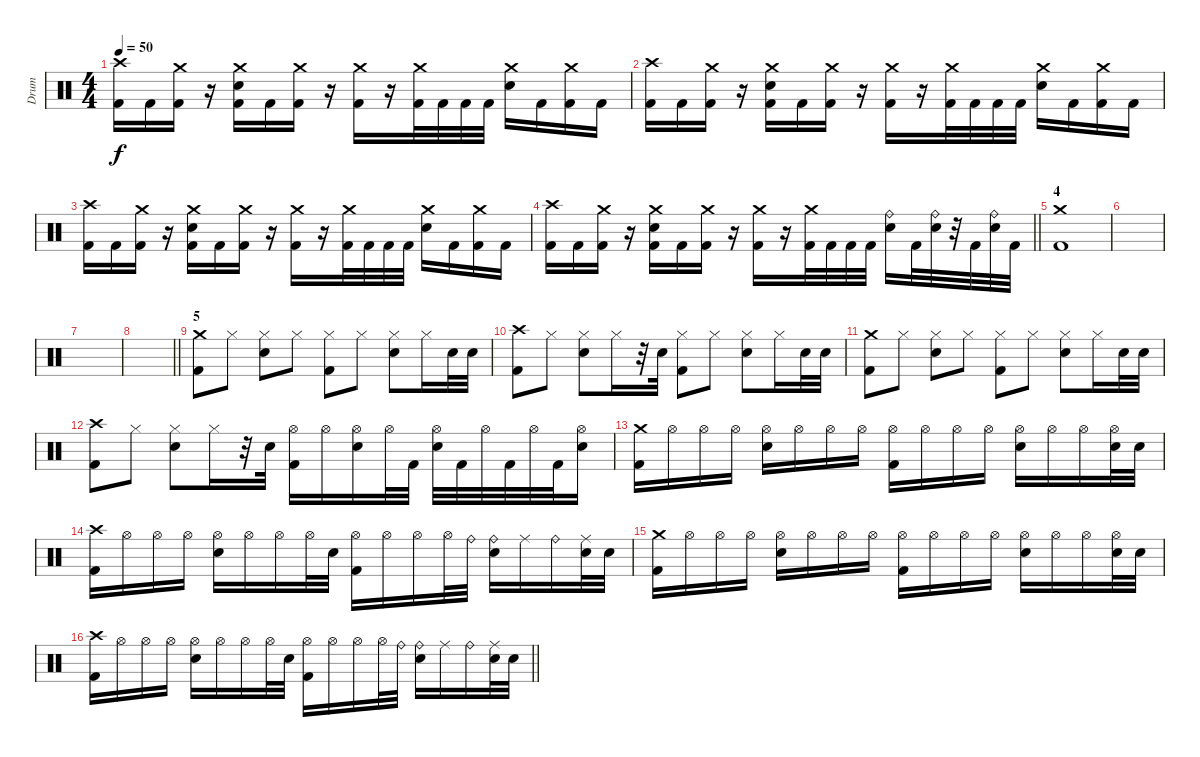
\track ("Drum " "Drum ") {instrument percussion}
\staff {score}
\articulation defaults
\ts (4 4)
\tempo 50
\clef neutral
\ks c
("Crash high (hit)" "Kick (hit) 2").16{dy f} "Kick (hit) 2".16 ("Crash medium (hit)" "Kick (hit) 2").16 r.16 ("Crash medium (hit)" "Snare (hit) 2" "Kick (hit) 2").16 "Kick (hit) 2".16 ("Crash medium (hit)" "Kick (hit) 2").16 r.16 ("Crash medium (hit)" "Kick (hit) 2").16 r.16 ("Crash medium (hit)" "Kick (hit) 2").32 "Kick (hit) 2".32 "Kick (hit) 2".32 "Kick (hit) 2".32 ("Crash medium (hit)" "Snare (hit) 2").16 "Kick (hit) 2".16 ("Crash medium (hit)" "Kick (hit) 2").16 "Kick (hit) 2".16 |
("Crash high (hit)" "Kick (hit) 2").16 "Kick (hit) 2".16 ("Crash medium (hit)" "Kick (hit) 2").16 r.16 ("Crash medium (hit)" "Snare (hit) 2" "Kick (hit) 2").16 "Kick (hit) 2".16 ("Crash medium (hit)" "Kick (hit) 2").16 r.16 ("Crash medium (hit)" "Kick (hit) 2").16 r.16 ("Crash medium (hit)" "Kick (hit) 2").32 "Kick (hit) 2".32 "Kick (hit) 2".32 "Kick (hit) 2".32 ("Crash medium (hit)" "Snare (hit) 2").16 "Kick (hit) 2".16 ("Crash medium (hit)" "Kick (hit) 2").16 "Kick (hit) 2".16 |
("Crash high (hit)" "Kick (hit) 2").16 "Kick (hit) 2".16 ("Crash medium (hit)" "Kick (hit) 2").16 r.16 ("Crash medium (hit)" "Snare (hit) 2" "Kick (hit) 2").16 "Kick (hit) 2".16 ("Crash medium (hit)" "Kick (hit) 2").16 r.16 ("Crash medium (hit)" "Kick (hit) 2").16 r.16 ("Crash medium (hit)" "Kick (hit) 2").32 "Kick (hit) 2".32 "Kick (hit) 2".32 "Kick (hit) 2".32 ("Crash medium (hit)" "Snare (hit) 2").16 "Kick (hit) 2".16 ("Crash medium (hit)" "Kick (hit) 2").16 "Kick (hit) 2".16 |
\barLineRight lightlight
("Crash high (hit)" "Kick (hit) 2").16 "Kick (hit) 2".16 ("Crash medium (hit)" "Kick (hit) 2").16 r.16 ("Crash medium (hit)" "Snare (hit) 2" "Kick (hit) 2").16 "Kick (hit) 2".16 ("Crash medium (hit)" "Kick (hit) 2").16 r.16 ("Crash medium (hit)" "Kick (hit) 2").16 r.16 ("Crash medium (hit)" "Kick (hit) 2").32 "Kick (hit) 2".32 "Kick (hit) 2".32 "Kick (hit) 2".32 ("Ride (bell)" "Snare (hit) 2").16 "Kick (hit) 2".32 ("Ride (bell)" "Snare (hit) 2").32 r.32 "Kick (hit) 2".32 ("Ride (bell)" "Snare (hit) 2").32 "Kick (hit) 2".32 |
\section ("" "4 ")
("Crash medium (hit)" "Kick (hit) 2").1 |
|
|
\barLineRight lightlight
|
\section ("" "5")
("Crash medium (hit)" "Kick (hit) 2").8 "Hi-Hat (closed)".8 ("Hi-Hat (closed)" "Electric Snare (hit)").8 "Hi-Hat (closed)".8 ("Hi-Hat (closed)" "Kick (hit) 2").8 "Hi-Hat (closed)".8 ("Hi-Hat (closed)" "Electric Snare (hit)").8 "Hi-Hat (closed)".16 "Electric Snare (hit)".32 "Electric Snare (hit)".32 |
("Crash high (hit)" "Kick (hit) 2").8 "Hi-Hat (closed)".8 ("Hi-Hat (closed)" "Electric Snare (hit)").8 "Hi-Hat (closed)".16 r.32 "Electric Snare (hit)".32 ("Hi-Hat (closed)" "Kick (hit) 2").8 "Hi-Hat (closed)".8 ("Hi-Hat (closed)" "Electric Snare (hit)").8 "Hi-Hat (closed)".16 "Electric Snare (hit)".32 "Electric Snare (hit)".32 |
("Crash medium (hit)" "Kick (hit) 2").8 "Hi-Hat (closed)".8 ("Hi-Hat (closed)" "Electric Snare (hit)").8 "Hi-Hat (closed)".8 ("Hi-Hat (closed)" "Kick (hit) 2").8 "Hi-Hat (closed)".8 ("Hi-Hat (closed)" "Electric Snare (hit)").8 "Hi-Hat (closed)".16 "Electric Snare (hit)".32 "Electric Snare (hit)".32 |
("Crash high (hit)" "Kick (hit) 2").8 "Hi-Hat (closed)".8 ("Hi-Hat (closed)" "Electric Snare (hit)").8 "Hi-Hat (closed)".16 r.32 "Electric Snare (hit)".32 ("Hi-Hat (open)" "Kick (hit) 2").16 "Hi-Hat (open)".16 ("Hi-Hat (open)" "Electric Snare (hit)").16 "Hi-Hat (open)".32 "Kick (hit) 2".32 ("Hi-Hat (open)" "Electric Snare (hit)").32 "Kick (hit) 2".32 "Hi-Hat (open)".32 "Kick (hit) 2".32 "Hi-Hat (open)".32 "Kick (hit) 2".32 ("Hi-Hat (open)" "Electric Snare (hit)").16 |
("Crash medium (hit)" "Kick (hit) 2").16 "Hi-Hat (open)".16 "Hi-Hat (open)".16 "Hi-Hat (open)".16 ("Hi-Hat (open)" "Electric Snare (hit)").16 "Hi-Hat (open)".16 "Hi-Hat (open)".16 "Hi-Hat (open)".16 ("Hi-Hat (open)" "Kick (hit) 2").16 "Hi-Hat (open)".16 "Hi-Hat (open)".16 "Hi-Hat (open)".16 ("Hi-Hat (open)" "Electric Snare (hit)").16 "Hi-Hat (open)".16 "Hi-Hat (open)".16 ("Hi-Hat (open)" "Electric Snare (hit)").32 "Electric Snare (hit)".32 |
("Crash high (hit)" "Kick (hit) 2").16 "Hi-Hat (open)".16 "Hi-Hat (open)".16 "Hi-Hat (open)".16 ("Hi-Hat (open)" "Electric Snare (hit)").16 "Hi-Hat (open)".16 "Hi-Hat (open)".16 "Hi-Hat (open)".32 "Electric Snare (hit)".32 ("Hi-Hat (open)" "Kick (hit) 2").16 "Hi-Hat (open)".16 "Hi-Hat (open)".16 "Hi-Hat (open)".32 "Ride (bell)".32 ("Ride (bell)" "Electric Snare (hit)").16 "Ride (middle)".16 "Ride (bell)".16 ("Ride (middle)" "Electric Snare (hit)").32 "Electric Snare (hit)".32 |
("Crash medium (hit)" "Kick (hit) 2").16 "Hi-Hat (open)".16 "Hi-Hat (open)".16 "Hi-Hat (open)".16 ("Hi-Hat (open)" "Electric Snare (hit)").16 "Hi-Hat (open)".16 "Hi-Hat (open)".16 "Hi-Hat (open)".16 ("Hi-Hat (open)" "Kick (hit) 2").16 "Hi-Hat (open)".16 "Hi-Hat (open)".16 "Hi-Hat (open)".16 ("Hi-Hat (open)" "Electric Snare (hit)").16 "Hi-Hat (open)".16 "Hi-Hat (open)".16 ("Hi-Hat (open)" "Electric Snare (hit)").32 "Electric Snare (hit)".32 |
\barLineRight lightlight
("Crash high (hit)" "Kick (hit) 2").16 "Hi-Hat (open)".16 "Hi-Hat (open)".16 "Hi-Hat (open)".16 ("Hi-Hat (open)" "Electric Snare (hit)").16 "Hi-Hat (open)".16 "Hi-Hat (open)".16 "Hi-Hat (open)".32 "Electric Snare (hit)".32 ("Hi-Hat (open)" "Kick (hit) 2").16 "Hi-Hat (open)".16 "Hi-Hat (open)".16 "Hi-Hat (open)".32 "Ride (bell)".32 ("Ride (bell)" "Electric Snare (hit)").16 "Ride (middle)".16 "Ride (bell)".16 ("Ride (middle)" "Electric Snare (hit)").32 "Electric Snare (hit)".32
